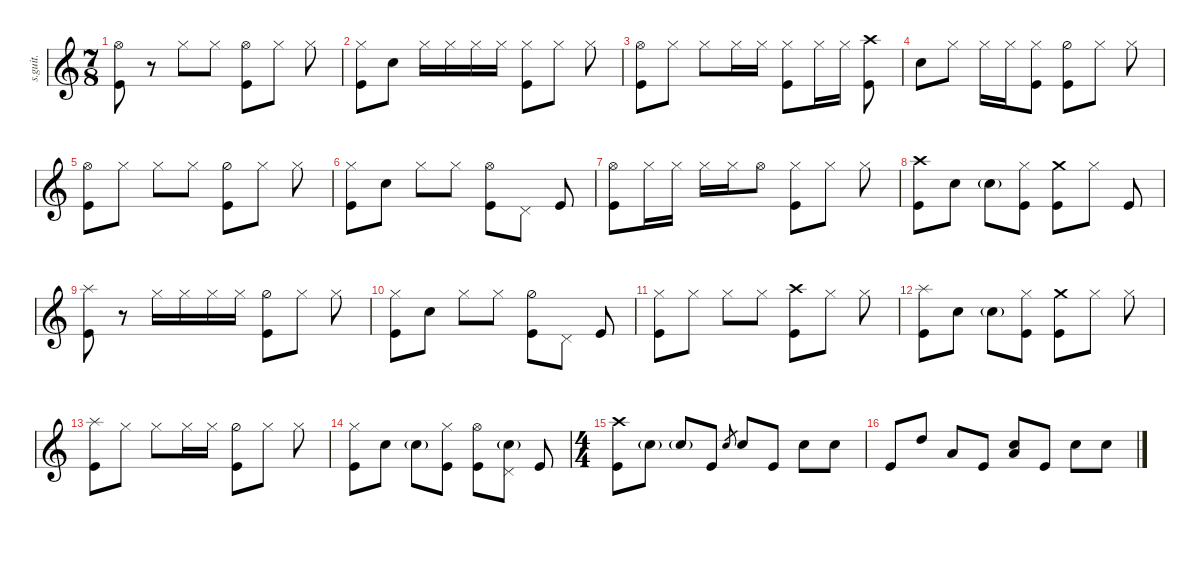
\defaultSystemsLayout 4
\hideDynamics
\bracketExtendMode nobrackets
\track ("Matt Halpern" "s.guit.") {instrument percussion}
\staff {score}
\articulation defaults
\ts (7 8)
\beaming (8 2 2 2 2)
\tempo (213 hide)
\clef g2
\ks c
("Hi-Hat (open)" "Kick (hit)").8{lyrics (0 "") lyrics (1 "") lyrics (2 "") lyrics (3 "") lyrics (4 "") dy mf} r.8 "Hi-Hat (closed)".8{lyrics (0 "") lyrics (1 "") lyrics (2 "") lyrics (3 "") lyrics (4 "")} "Hi-Hat (closed)".8{lyrics (0 "") lyrics (1 "") lyrics (2 "") lyrics (3 "") lyrics (4 "")} ("Hi-Hat (open)" "Kick (hit)").8{lyrics (0 "") lyrics (1 "") lyrics (2 "") lyrics (3 "") lyrics (4 "")} "Hi-Hat (closed)".8{lyrics (0 "") lyrics (1 "") lyrics (2 "") lyrics (3 "") lyrics (4 "")} "Hi-Hat (closed)".8{lyrics (0 "") lyrics (1 "") lyrics (2 "") lyrics (3 "") lyrics (4 "")} |
("Hi-Hat (closed)" "Kick (hit)").8{lyrics (0 "") lyrics (1 "") lyrics (2 "") lyrics (3 "") lyrics (4 "")} "Snare (hit) 2".8{lyrics (0 "") lyrics (1 "") lyrics (2 "") lyrics (3 "") lyrics (4 "")} "Hi-Hat (closed)".16{lyrics (0 "") lyrics (1 "") lyrics (2 "") lyrics (3 "") lyrics (4 "")} "Hi-Hat (closed)".16{lyrics (0 "") lyrics (1 "") lyrics (2 "") lyrics (3 "") lyrics (4 "")} "Hi-Hat (closed)".16{lyrics (0 "") lyrics (1 "") lyrics (2 "") lyrics (3 "") lyrics (4 "")} "Hi-Hat (closed)".16{lyrics (0 "") lyrics (1 "") lyrics (2 "") lyrics (3 "") lyrics (4 "")} ("Hi-Hat (closed)" "Kick (hit)").8{lyrics (0 "") lyrics (1 "") lyrics (2 "") lyrics (3 "") lyrics (4 "")} "Hi-Hat (closed)".8{lyrics (0 "") lyrics (1 "") lyrics (2 "") lyrics (3 "") lyrics (4 "")} "Hi-Hat (closed)".8{lyrics (0 "") lyrics (1 "") lyrics (2 "") lyrics (3 "") lyrics (4 "")} |
("Kick (hit)" "Hi-Hat (open)").8{lyrics (0 "") lyrics (1 "") lyrics (2 "") lyrics (3 "") lyrics (4 "")} "Hi-Hat (closed)".8{lyrics (0 "") lyrics (1 "") lyrics (2 "") lyrics (3 "") lyrics (4 "")} "Hi-Hat (closed)".8{lyrics (0 "") lyrics (1 "") lyrics (2 "") lyrics (3 "") lyrics (4 "")} "Hi-Hat (closed)".16{lyrics (0 "") lyrics (1 "") lyrics (2 "") lyrics (3 "") lyrics (4 "")} "Hi-Hat (closed)".16{lyrics (0 "") lyrics (1 "") lyrics (2 "") lyrics (3 "") lyrics (4 "")} ("Hi-Hat (closed)" "Kick (hit)").8{lyrics (0 "") lyrics (1 "") lyrics (2 "") lyrics (3 "") lyrics (4 "")} "Hi-Hat (closed)".16{lyrics (0 "") lyrics (1 "") lyrics (2 "") lyrics (3 "") lyrics (4 "")} "Hi-Hat (closed)".16{lyrics (0 "") lyrics (1 "") lyrics (2 "") lyrics (3 "") lyrics (4 "")} ("Crash high (hit)" "Kick (hit)").8{lyrics (0 "") lyrics (1 "") lyrics (2 "") lyrics (3 "") lyrics (4 "")} |
"Snare (hit) 2".8{lyrics (0 "") lyrics (1 "") lyrics (2 "") lyrics (3 "") lyrics (4 "")} "Hi-Hat (closed)".8{lyrics (0 "") lyrics (1 "") lyrics (2 "") lyrics (3 "") lyrics (4 "")} "Hi-Hat (closed)".16{lyrics (0 "") lyrics (1 "") lyrics (2 "") lyrics (3 "") lyrics (4 "")} "Hi-Hat (closed)".16{lyrics (0 "") lyrics (1 "") lyrics (2 "") lyrics (3 "") lyrics (4 "")} ("Hi-Hat (closed)" "Kick (hit)").8{lyrics (0 "") lyrics (1 "") lyrics (2 "") lyrics (3 "") lyrics (4 "")} ("Kick (hit)" "Hi-Hat (half)").8{lyrics (0 "") lyrics (1 "") lyrics (2 "") lyrics (3 "") lyrics (4 "")} "Hi-Hat (closed)".8{lyrics (0 "") lyrics (1 "") lyrics (2 "") lyrics (3 "") lyrics (4 "")} "Hi-Hat (closed)".8{lyrics (0 "") lyrics (1 "") lyrics (2 "") lyrics (3 "") lyrics (4 "")} |
("Kick (hit)" "Hi-Hat (open)").8{lyrics (0 "") lyrics (1 "") lyrics (2 "") lyrics (3 "") lyrics (4 "")} "Hi-Hat (closed)".8{lyrics (0 "") lyrics (1 "") lyrics (2 "") lyrics (3 "") lyrics (4 "")} "Hi-Hat (closed)".8{lyrics (0 "") lyrics (1 "") lyrics (2 "") lyrics (3 "") lyrics (4 "")} "Hi-Hat (closed)".8{lyrics (0 "") lyrics (1 "") lyrics (2 "") lyrics (3 "") lyrics (4 "")} ("Kick (hit)" "Hi-Hat (half)").8{lyrics (0 "") lyrics (1 "") lyrics (2 "") lyrics (3 "") lyrics (4 "")} "Hi-Hat (closed)".8{lyrics (0 "") lyrics (1 "") lyrics (2 "") lyrics (3 "") lyrics (4 "")} "Hi-Hat (closed)".8{lyrics (0 "") lyrics (1 "") lyrics (2 "") lyrics (3 "") lyrics (4 "")} |
("Hi-Hat (closed)" "Kick (hit)").8{lyrics (0 "") lyrics (1 "") lyrics (2 "") lyrics (3 "") lyrics (4 "")} "Snare (hit) 2".8{lyrics (0 "") lyrics (1 "") lyrics (2 "") lyrics (3 "") lyrics (4 "")} "Hi-Hat (closed)".8{lyrics (0 "") lyrics (1 "") lyrics (2 "") lyrics (3 "") lyrics (4 "")} "Hi-Hat (closed)".8{lyrics (0 "") lyrics (1 "") lyrics (2 "") lyrics (3 "") lyrics (4 "")} ("Hi-Hat (open)" "Kick (hit)").8{lyrics (0 "") lyrics (1 "") lyrics (2 "") lyrics (3 "") lyrics (4 "")} "Pedal Hi-Hat (hit)".8{lyrics (0 "") lyrics (1 "") lyrics (2 "") lyrics (3 "") lyrics (4 "")} "Kick (hit)".8{lyrics (0 "") lyrics (1 "") lyrics (2 "") lyrics (3 "") lyrics (4 "")} |
("Kick (hit)" "Hi-Hat (open)").8{lyrics (0 "") lyrics (1 "") lyrics (2 "") lyrics (3 "") lyrics (4 "")} "Hi-Hat (closed)".16{lyrics (0 "") lyrics (1 "") lyrics (2 "") lyrics (3 "") lyrics (4 "")} "Hi-Hat (closed)".16{lyrics (0 "") lyrics (1 "") lyrics (2 "") lyrics (3 "") lyrics (4 "")} "Hi-Hat (closed)".16{lyrics (0 "") lyrics (1 "") lyrics (2 "") lyrics (3 "") lyrics (4 "")} "Hi-Hat (closed)".16{lyrics (0 "") lyrics (1 "") lyrics (2 "") lyrics (3 "") lyrics (4 "")} "Hi-Hat (open)".8{lyrics (0 "") lyrics (1 "") lyrics (2 "") lyrics (3 "") lyrics (4 "")} ("Hi-Hat (closed)" "Kick (hit)").8{lyrics (0 "") lyrics (1 "") lyrics (2 "") lyrics (3 "") lyrics (4 "")} "Hi-Hat (closed)".8{lyrics (0 "") lyrics (1 "") lyrics (2 "") lyrics (3 "") lyrics (4 "")} "Hi-Hat (closed)".8{lyrics (0 "") lyrics (1 "") lyrics (2 "") lyrics (3 "") lyrics (4 "")} |
("Crash high (hit)" "Kick (hit)").8{lyrics (0 "") lyrics (1 "") lyrics (2 "") lyrics (3 "") lyrics (4 "")} "Snare (hit) 2".8{lyrics (0 "") lyrics (1 "") lyrics (2 "") lyrics (3 "") lyrics (4 "")} "Snare (hit) 2"{g}.8{lyrics (0 "") lyrics (1 "") lyrics (2 "") lyrics (3 "") lyrics (4 "")} ("Hi-Hat (closed)" "Kick (hit)").8{lyrics (0 "") lyrics (1 "") lyrics (2 "") lyrics (3 "") lyrics (4 "")} ("Crash medium (hit)" "Kick (hit)").8{lyrics (0 "") lyrics (1 "") lyrics (2 "") lyrics (3 "") lyrics (4 "")} "Hi-Hat (closed)".8{lyrics (0 "") lyrics (1 "") lyrics (2 "") lyrics (3 "") lyrics (4 "")} "Kick (hit)".8{lyrics (0 "") lyrics (1 "") lyrics (2 "") lyrics (3 "") lyrics (4 "")} |
("Splash (hit)" "Kick (hit)").8{lyrics (0 "") lyrics (1 "") lyrics (2 "") lyrics (3 "") lyrics (4 "")} r.8 "Hi-Hat (closed)".16{lyrics (0 "") lyrics (1 "") lyrics (2 "") lyrics (3 "") lyrics (4 "")} "Hi-Hat (closed)".16{lyrics (0 "") lyrics (1 "") lyrics (2 "") lyrics (3 "") lyrics (4 "")} "Hi-Hat (closed)".16{lyrics (0 "") lyrics (1 "") lyrics (2 "") lyrics (3 "") lyrics (4 "")} "Hi-Hat (closed)".16{lyrics (0 "") lyrics (1 "") lyrics (2 "") lyrics (3 "") lyrics (4 "")} ("Kick (hit)" "Hi-Hat (half)").8{lyrics (0 "") lyrics (1 "") lyrics (2 "") lyrics (3 "") lyrics (4 "")} "Hi-Hat (closed)".8{lyrics (0 "") lyrics (1 "") lyrics (2 "") lyrics (3 "") lyrics (4 "")} "Hi-Hat (closed)".8{lyrics (0 "") lyrics (1 "") lyrics (2 "") lyrics (3 "") lyrics (4 "")} |
("Hi-Hat (closed)" "Kick (hit)").8{lyrics (0 "") lyrics (1 "") lyrics (2 "") lyrics (3 "") lyrics (4 "")} "Snare (hit) 2".8{lyrics (0 "") lyrics (1 "") lyrics (2 "") lyrics (3 "") lyrics (4 "")} "Hi-Hat (closed)".8{lyrics (0 "") lyrics (1 "") lyrics (2 "") lyrics (3 "") lyrics (4 "")} "Hi-Hat (closed)".8{lyrics (0 "") lyrics (1 "") lyrics (2 "") lyrics (3 "") lyrics (4 "")} ("Kick (hit)" "Hi-Hat (half)").8{lyrics (0 "") lyrics (1 "") lyrics (2 "") lyrics (3 "") lyrics (4 "")} "Pedal Hi-Hat (hit)".8{lyrics (0 "") lyrics (1 "") lyrics (2 "") lyrics (3 "") lyrics (4 "")} "Kick (hit)".8{lyrics (0 "") lyrics (1 "") lyrics (2 "") lyrics (3 "") lyrics (4 "")} |
("Hi-Hat (closed)" "Kick (hit)").8{lyrics (0 "") lyrics (1 "") lyrics (2 "") lyrics (3 "") lyrics (4 "")} "Hi-Hat (closed)".8{lyrics (0 "") lyrics (1 "") lyrics (2 "") lyrics (3 "") lyrics (4 "")} "Hi-Hat (closed)".8{lyrics (0 "") lyrics (1 "") lyrics (2 "") lyrics (3 "") lyrics (4 "")} "Hi-Hat (closed)".8{lyrics (0 "") lyrics (1 "") lyrics (2 "") lyrics (3 "") lyrics (4 "")} ("Crash high (hit)" "Kick (hit)").8{lyrics (0 "") lyrics (1 "") lyrics (2 "") lyrics (3 "") lyrics (4 "")} "Hi-Hat (closed)".8{lyrics (0 "") lyrics (1 "") lyrics (2 "") lyrics (3 "") lyrics (4 "")} "Hi-Hat (closed)".8{lyrics (0 "") lyrics (1 "") lyrics (2 "") lyrics (3 "") lyrics (4 "")} |
("Splash (hit)" "Kick (hit)").8{lyrics (0 "") lyrics (1 "") lyrics (2 "") lyrics (3 "") lyrics (4 "")} "Snare (hit) 2".8{lyrics (0 "") lyrics (1 "") lyrics (2 "") lyrics (3 "") lyrics (4 "")} "Snare (hit) 2"{g}.8{lyrics (0 "") lyrics (1 "") lyrics (2 "") lyrics (3 "") lyrics (4 "")} ("Hi-Hat (closed)" "Kick (hit)").8{lyrics (0 "") lyrics (1 "") lyrics (2 "") lyrics (3 "") lyrics (4 "")} ("Crash medium (hit)" "Kick (hit)").8{lyrics (0 "") lyrics (1 "") lyrics (2 "") lyrics (3 "") lyrics (4 "")} "Hi-Hat (closed)".8{lyrics (0 "") lyrics (1 "") lyrics (2 "") lyrics (3 "") lyrics (4 "")} "Hi-Hat (closed)".8{lyrics (0 "") lyrics (1 "") lyrics (2 "") lyrics (3 "") lyrics (4 "")} |
("Splash (hit)" "Kick (hit)").8{lyrics (0 "") lyrics (1 "") lyrics (2 "") lyrics (3 "") lyrics (4 "")} "Hi-Hat (closed)".8{lyrics (0 "") lyrics (1 "") lyrics (2 "") lyrics (3 "") lyrics (4 "")} "Hi-Hat (closed)".8{lyrics (0 "") lyrics (1 "") lyrics (2 "") lyrics (3 "") lyrics (4 "")} "Hi-Hat (closed)".16{lyrics (0 "") lyrics (1 "") lyrics (2 "") lyrics (3 "") lyrics (4 "")} "Hi-Hat (closed)".16{lyrics (0 "") lyrics (1 "") lyrics (2 "") lyrics (3 "") lyrics (4 "")} ("Kick (hit)" "Hi-Hat (half)").8{lyrics (0 "") lyrics (1 "") lyrics (2 "") lyrics (3 "") lyrics (4 "")} "Hi-Hat (closed)".8{lyrics (0 "") lyrics (1 "") lyrics (2 "") lyrics (3 "") lyrics (4 "")} "Hi-Hat (closed)".8{lyrics (0 "") lyrics (1 "") lyrics (2 "") lyrics (3 "") lyrics (4 "")} |
("Hi-Hat (closed)" "Kick (hit)").8{lyrics (0 "") lyrics (1 "") lyrics (2 "") lyrics (3 "") lyrics (4 "")} "Snare (hit) 2".8{lyrics (0 "") lyrics (1 "") lyrics (2 "") lyrics (3 "") lyrics (4 "")} "Snare (hit) 2"{g}.8{lyrics (0 "") lyrics (1 "") lyrics (2 "") lyrics (3 "") lyrics (4 "")} ("Hi-Hat (closed)" "Kick (hit)").8{lyrics (0 "") lyrics (1 "") lyrics (2 "") lyrics (3 "") lyrics (4 "")} ("Hi-Hat (open)" "Kick (hit)").8{lyrics (0 "") lyrics (1 "") lyrics (2 "") lyrics (3 "") lyrics (4 "")} ("Pedal Hi-Hat (hit)" "Snare (hit) 2"{g}).8{lyrics (0 "") lyrics (1 "") lyrics (2 "") lyrics (3 "") lyrics (4 "")} "Kick (hit)".8{lyrics (0 "") lyrics (1 "") lyrics (2 "") lyrics (3 "") lyrics (4 "")} |
\ts (4 4)
\beaming (8 2 2 2 2)
("Crash high (hit)" "Kick (hit)").8{lyrics (0 "") lyrics (1 "") lyrics (2 "") lyrics (3 "") lyrics (4 "")} "Snare (hit) 2"{g}.8{lyrics (0 "") lyrics (1 "") lyrics (2 "") lyrics (3 "") lyrics (4 "")} "Snare (hit) 2"{g}.8{lyrics (0 "") lyrics (1 "") lyrics (2 "") lyrics (3 "") lyrics (4 "")} "Kick (hit)".8{lyrics (0 "") lyrics (1 "") lyrics (2 "") lyrics (3 "") lyrics (4 "")} "Snare (hit) 2".8{lyrics (0 "") lyrics (1 "") lyrics (2 "") lyrics (3 "") lyrics (4 "") gr} "Snare (hit) 2".8{lyrics (0 "") lyrics (1 "") lyrics (2 "") lyrics (3 "") lyrics (4 "")} "Kick (hit)".8{lyrics (0 "") lyrics (1 "") lyrics (2 "") lyrics (3 "") lyrics (4 "")} "Snare (hit) 2".8{lyrics (0 "") lyrics (1 "") lyrics (2 "") lyrics (3 "") lyrics (4 "")} "Snare (hit) 2".8{lyrics (0 "") lyrics (1 "") lyrics (2 "") lyrics (3 "") lyrics (4 "")} |
"Kick (hit)".8{lyrics (0 "") lyrics (1 "") lyrics (2 "") lyrics (3 "") lyrics (4 "")} "High Tom (hit)".8{lyrics (0 "") lyrics (1 "") lyrics (2 "") lyrics (3 "") lyrics (4 "")} "Low Tom (hit)".8{lyrics (0 "") lyrics (1 "") lyrics (2 "") lyrics (3 "") lyrics (4 "")} "Kick (hit)".8{lyrics (0 "") lyrics (1 "") lyrics (2 "") lyrics (3 "") lyrics (4 "")} ("Snare (hit) 2" "Low Tom (hit)").8{lyrics (0 "") lyrics (1 "") lyrics (2 "") lyrics (3 "") lyrics (4 "")} "Kick (hit)".8{lyrics (0 "") lyrics (1 "") lyrics (2 "") lyrics (3 "") lyrics (4 "")} "Snare (hit) 2".8{lyrics (0 "") lyrics (1 "") lyrics (2 "") lyrics (3 "") lyrics (4 "")} "Snare (hit) 2".8{lyrics (0 "") lyrics (1 "") lyrics (2 "") lyrics (3 "") lyrics (4 "")}
